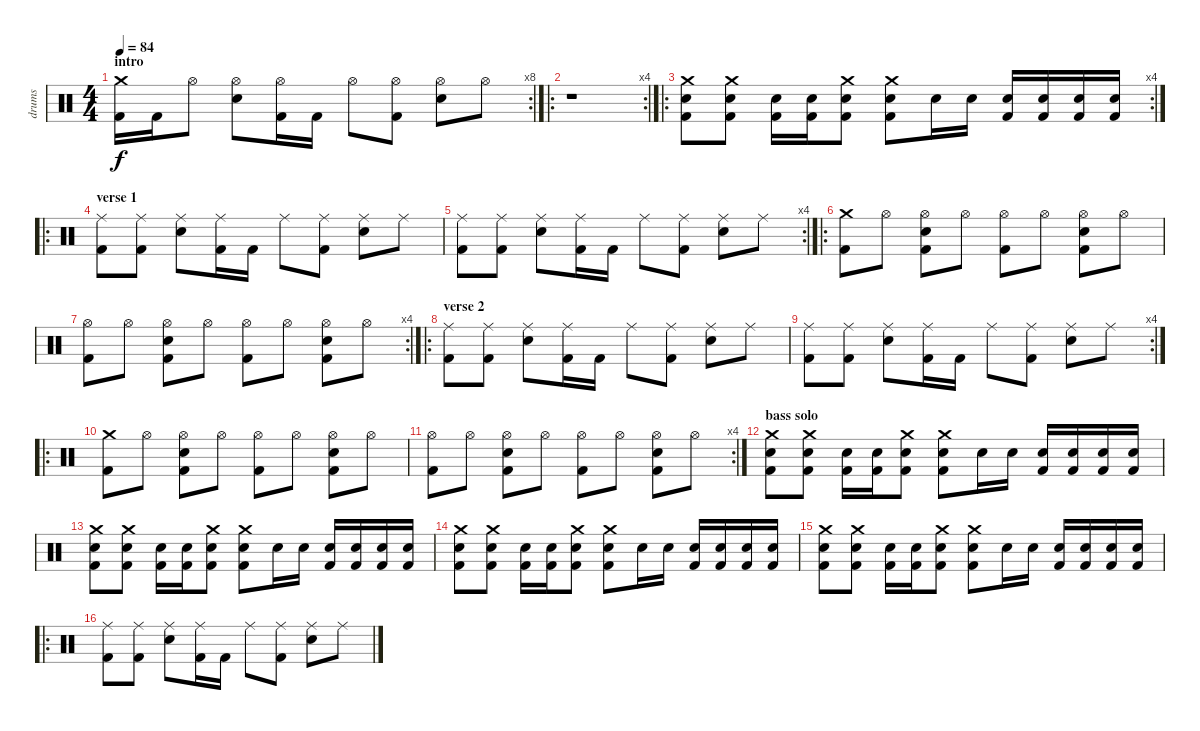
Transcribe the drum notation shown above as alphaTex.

\track ("drums" "drums") {instrument percussion}
\staff {score}
\articulation defaults
\rc 8
\ts (4 4)
\section ("" "intro")
\tempo 84
\clef neutral
\ks c
("Crash medium (hit)" "Kick (hit) 2").16{dy f} "Kick (hit) 2".16 "Hi-Hat (open)".8 ("Hi-Hat (open)" "Electric Snare (hit)").8 ("Hi-Hat (open)" "Kick (hit) 2").16 "Kick (hit) 2".16 "Hi-Hat (open)".8 ("Hi-Hat (open)" "Kick (hit) 2").8 ("Hi-Hat (open)" "Electric Snare (hit)").8 "Hi-Hat (open)".8 |
\ro
\rc 4
r.1 |
\ro
\rc 4
("Crash medium (hit)" "Electric Snare (hit)" "Kick (hit) 2").8 ("Crash medium (hit)" "Electric Snare (hit)" "Kick (hit) 2").8 ("Electric Snare (hit)" "Kick (hit) 2").16 ("Electric Snare (hit)" "Kick (hit) 2").16 ("Crash medium (hit)" "Electric Snare (hit)" "Kick (hit) 2").8 ("Crash medium (hit)" "Electric Snare (hit)" "Kick (hit) 2").8 "Electric Snare (hit)".16 "Electric Snare (hit)".16 ("Electric Snare (hit)" "Kick (hit) 2").16 ("Electric Snare (hit)" "Kick (hit) 2").16 ("Electric Snare (hit)" "Kick (hit) 2").16 ("Electric Snare (hit)" "Kick (hit) 2").16 |
\ro
\section ("" "verse 1")
("Ride (middle)" "Kick (hit) 2").8 ("Ride (middle)" "Kick (hit) 2").8 ("Ride (middle)" "Electric Snare (hit)").8 ("Ride (middle)" "Kick (hit) 2").16 "Kick (hit) 2".16 "Ride (middle)".8 ("Ride (middle)" "Kick (hit) 2").8 ("Ride (middle)" "Electric Snare (hit)").8 "Ride (middle)".8 |
\rc 4
("Ride (middle)" "Kick (hit) 2").8 ("Ride (middle)" "Kick (hit) 2").8 ("Ride (middle)" "Electric Snare (hit)").8 ("Ride (middle)" "Kick (hit) 2").16 "Kick (hit) 2".16 "Ride (middle)".8 ("Ride (middle)" "Kick (hit) 2").8 ("Ride (middle)" "Electric Snare (hit)").8 "Ride (middle)".8 |
\ro
("Crash medium (hit)" "Kick (hit) 2").8 "Hi-Hat (open)".8 ("Hi-Hat (open)" "Electric Snare (hit)" "Kick (hit) 2").8 "Hi-Hat (open)".8 ("Hi-Hat (open)" "Kick (hit) 2").8 "Hi-Hat (open)".8 ("Hi-Hat (open)" "Electric Snare (hit)" "Kick (hit) 2").8 "Hi-Hat (open)".8 |
\rc 4
("Hi-Hat (open)" "Kick (hit) 2").8 "Hi-Hat (open)".8 ("Hi-Hat (open)" "Electric Snare (hit)" "Kick (hit) 2").8 "Hi-Hat (open)".8 ("Hi-Hat (open)" "Kick (hit) 2").8 "Hi-Hat (open)".8 ("Hi-Hat (open)" "Electric Snare (hit)" "Kick (hit) 2").8 "Hi-Hat (open)".8 |
\ro
\section ("" "verse 2")
("Ride (middle)" "Kick (hit) 2").8 ("Ride (middle)" "Kick (hit) 2").8 ("Ride (middle)" "Electric Snare (hit)").8 ("Ride (middle)" "Kick (hit) 2").16 "Kick (hit) 2".16 "Ride (middle)".8 ("Ride (middle)" "Kick (hit) 2").8 ("Ride (middle)" "Electric Snare (hit)").8 "Ride (middle)".8 |
\rc 4
("Ride (middle)" "Kick (hit) 2").8 ("Ride (middle)" "Kick (hit) 2").8 ("Ride (middle)" "Electric Snare (hit)").8 ("Ride (middle)" "Kick (hit) 2").16 "Kick (hit) 2".16 "Ride (middle)".8 ("Ride (middle)" "Kick (hit) 2").8 ("Ride (middle)" "Electric Snare (hit)").8 "Ride (middle)".8 |
\ro
("Crash medium (hit)" "Kick (hit) 2").8 "Hi-Hat (open)".8 ("Hi-Hat (open)" "Electric Snare (hit)" "Kick (hit) 2").8 "Hi-Hat (open)".8 ("Hi-Hat (open)" "Kick (hit) 2").8 "Hi-Hat (open)".8 ("Hi-Hat (open)" "Electric Snare (hit)" "Kick (hit) 2").8 "Hi-Hat (open)".8 |
\rc 4
("Hi-Hat (open)" "Kick (hit) 2").8 "Hi-Hat (open)".8 ("Hi-Hat (open)" "Electric Snare (hit)" "Kick (hit) 2").8 "Hi-Hat (open)".8 ("Hi-Hat (open)" "Kick (hit) 2").8 "Hi-Hat (open)".8 ("Hi-Hat (open)" "Electric Snare (hit)" "Kick (hit) 2").8 "Hi-Hat (open)".8 |
\section ("" "bass solo")
("Crash medium (hit)" "Electric Snare (hit)" "Kick (hit) 2").8 ("Crash medium (hit)" "Electric Snare (hit)" "Kick (hit) 2").8 ("Electric Snare (hit)" "Kick (hit) 2").16 ("Electric Snare (hit)" "Kick (hit) 2").16 ("Crash medium (hit)" "Electric Snare (hit)" "Kick (hit) 2").8 ("Crash medium (hit)" "Electric Snare (hit)" "Kick (hit) 2").8 "Electric Snare (hit)".16 "Electric Snare (hit)".16 ("Electric Snare (hit)" "Kick (hit) 2").16 ("Electric Snare (hit)" "Kick (hit) 2").16 ("Electric Snare (hit)" "Kick (hit) 2").16 ("Electric Snare (hit)" "Kick (hit) 2").16 |
("Crash medium (hit)" "Electric Snare (hit)" "Kick (hit) 2").8 ("Crash medium (hit)" "Electric Snare (hit)" "Kick (hit) 2").8 ("Electric Snare (hit)" "Kick (hit) 2").16 ("Electric Snare (hit)" "Kick (hit) 2").16 ("Crash medium (hit)" "Electric Snare (hit)" "Kick (hit) 2").8 ("Crash medium (hit)" "Electric Snare (hit)" "Kick (hit) 2").8 "Electric Snare (hit)".16 "Electric Snare (hit)".16 ("Electric Snare (hit)" "Kick (hit) 2").16 ("Electric Snare (hit)" "Kick (hit) 2").16 ("Electric Snare (hit)" "Kick (hit) 2").16 ("Electric Snare (hit)" "Kick (hit) 2").16 |
("Crash medium (hit)" "Electric Snare (hit)" "Kick (hit) 2").8 ("Crash medium (hit)" "Electric Snare (hit)" "Kick (hit) 2").8 ("Electric Snare (hit)" "Kick (hit) 2").16 ("Electric Snare (hit)" "Kick (hit) 2").16 ("Crash medium (hit)" "Electric Snare (hit)" "Kick (hit) 2").8 ("Crash medium (hit)" "Electric Snare (hit)" "Kick (hit) 2").8 "Electric Snare (hit)".16 "Electric Snare (hit)".16 ("Electric Snare (hit)" "Kick (hit) 2").16 ("Electric Snare (hit)" "Kick (hit) 2").16 ("Electric Snare (hit)" "Kick (hit) 2").16 ("Electric Snare (hit)" "Kick (hit) 2").16 |
("Crash medium (hit)" "Electric Snare (hit)" "Kick (hit) 2").8 ("Crash medium (hit)" "Electric Snare (hit)" "Kick (hit) 2").8 ("Electric Snare (hit)" "Kick (hit) 2").16 ("Electric Snare (hit)" "Kick (hit) 2").16 ("Crash medium (hit)" "Electric Snare (hit)" "Kick (hit) 2").8 ("Crash medium (hit)" "Electric Snare (hit)" "Kick (hit) 2").8 "Electric Snare (hit)".16 "Electric Snare (hit)".16 ("Electric Snare (hit)" "Kick (hit) 2").16 ("Electric Snare (hit)" "Kick (hit) 2").16 ("Electric Snare (hit)" "Kick (hit) 2").16 ("Electric Snare (hit)" "Kick (hit) 2").16 |
\ro
("Ride (middle)" "Kick (hit) 2").8 ("Ride (middle)" "Kick (hit) 2").8 ("Ride (middle)" "Electric Snare (hit)").8 ("Ride (middle)" "Kick (hit) 2").16 "Kick (hit) 2".16 "Ride (middle)".8 ("Ride (middle)" "Kick (hit) 2").8 ("Ride (middle)" "Electric Snare (hit)").8 "Ride (middle)".8
